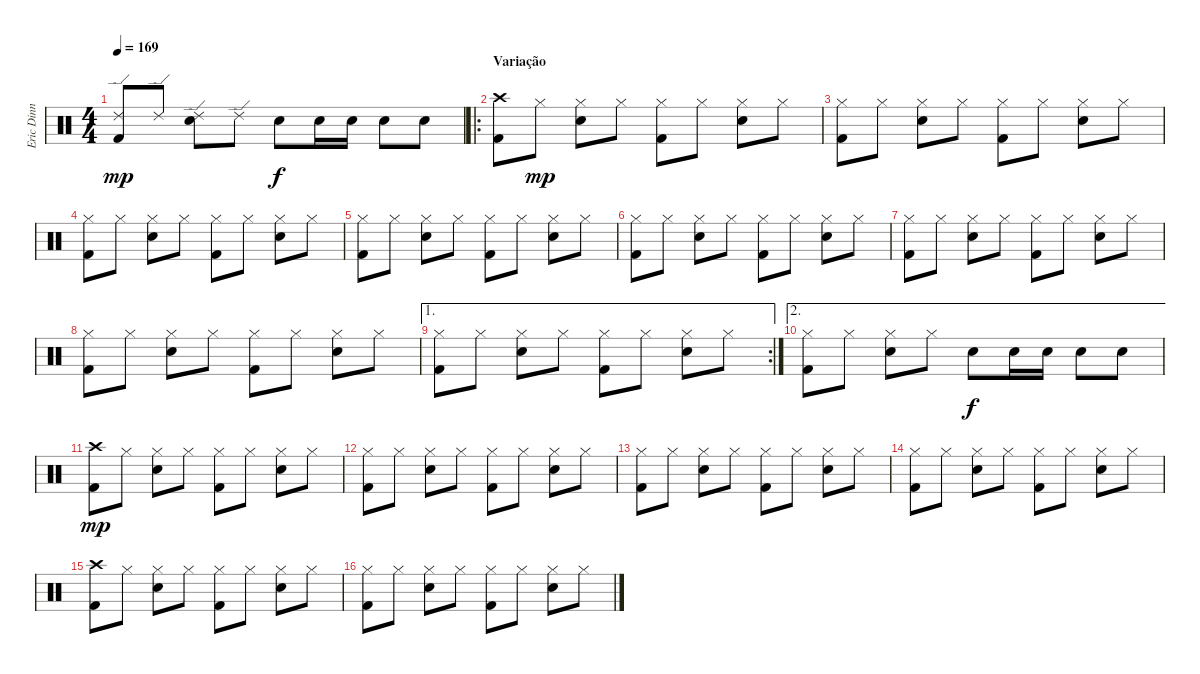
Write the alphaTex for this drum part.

\track ("Eric Dinn" "Eric Dinn") {instrument percussion}
\staff {score}
\articulation defaults
\ts (4 4)
\tempo 169
\clef neutral
\ks c
("Ride (edge) 2" "Kick (hit) 2").8{dy mp} "Ride (edge) 2".8 ("Ride (edge) 2" "Snare (hit) 2").8 "Ride (edge) 2".8 "Snare (hit) 2".8{dy f} "Snare (hit) 2".16 "Snare (hit) 2".16 "Snare (hit) 2".8 "Snare (hit) 2".8 |
\ro
\section ("" "Variação")
("Crash high (hit)" "Kick (hit) 2").8 "Hi-Hat (closed)".8{dy mp} ("Hi-Hat (closed)" "Snare (hit) 2").8 "Hi-Hat (closed)".8 ("Hi-Hat (closed)" "Kick (hit) 2").8 "Hi-Hat (closed)".8 ("Hi-Hat (closed)" "Snare (hit) 2").8 "Hi-Hat (closed)".8 |
("Hi-Hat (closed)" "Kick (hit) 2").8 "Hi-Hat (closed)".8 ("Hi-Hat (closed)" "Snare (hit) 2").8 "Hi-Hat (closed)".8 ("Hi-Hat (closed)" "Kick (hit) 2").8 "Hi-Hat (closed)".8 ("Hi-Hat (closed)" "Snare (hit) 2").8 "Hi-Hat (closed)".8 |
("Hi-Hat (closed)" "Kick (hit) 2").8 "Hi-Hat (closed)".8 ("Hi-Hat (closed)" "Snare (hit) 2").8 "Hi-Hat (closed)".8 ("Hi-Hat (closed)" "Kick (hit) 2").8 "Hi-Hat (closed)".8 ("Hi-Hat (closed)" "Snare (hit) 2").8 "Hi-Hat (closed)".8 |
("Hi-Hat (closed)" "Kick (hit) 2").8 "Hi-Hat (closed)".8 ("Hi-Hat (closed)" "Snare (hit) 2").8 "Hi-Hat (closed)".8 ("Hi-Hat (closed)" "Kick (hit) 2").8 "Hi-Hat (closed)".8 ("Hi-Hat (closed)" "Snare (hit) 2").8 "Hi-Hat (closed)".8 |
("Hi-Hat (closed)" "Kick (hit) 2").8 "Hi-Hat (closed)".8 ("Hi-Hat (closed)" "Snare (hit) 2").8 "Hi-Hat (closed)".8 ("Hi-Hat (closed)" "Kick (hit) 2").8 "Hi-Hat (closed)".8 ("Hi-Hat (closed)" "Snare (hit) 2").8 "Hi-Hat (closed)".8 |
("Hi-Hat (closed)" "Kick (hit) 2").8 "Hi-Hat (closed)".8 ("Hi-Hat (closed)" "Snare (hit) 2").8 "Hi-Hat (closed)".8 ("Hi-Hat (closed)" "Kick (hit) 2").8 "Hi-Hat (closed)".8 ("Hi-Hat (closed)" "Snare (hit) 2").8 "Hi-Hat (closed)".8 |
("Hi-Hat (closed)" "Kick (hit) 2").8 "Hi-Hat (closed)".8 ("Hi-Hat (closed)" "Snare (hit) 2").8 "Hi-Hat (closed)".8 ("Hi-Hat (closed)" "Kick (hit) 2").8 "Hi-Hat (closed)".8 ("Hi-Hat (closed)" "Snare (hit) 2").8 "Hi-Hat (closed)".8 |
\ae 1
\rc 2
("Hi-Hat (closed)" "Kick (hit) 2").8 "Hi-Hat (closed)".8 ("Hi-Hat (closed)" "Snare (hit) 2").8 "Hi-Hat (closed)".8 ("Hi-Hat (closed)" "Kick (hit) 2").8 "Hi-Hat (closed)".8 ("Hi-Hat (closed)" "Snare (hit) 2").8 "Hi-Hat (closed)".8 |
\ae 2
("Hi-Hat (closed)" "Kick (hit) 2").8 "Hi-Hat (closed)".8 ("Hi-Hat (closed)" "Snare (hit) 2").8 "Hi-Hat (closed)".8 "Snare (hit) 2".8{dy f} "Snare (hit) 2".16 "Snare (hit) 2".16 "Snare (hit) 2".8 "Snare (hit) 2".8 |
("Crash high (hit)" "Kick (hit) 2").8{dy mp} "Hi-Hat (closed)".8 ("Hi-Hat (closed)" "Snare (hit) 2").8 "Hi-Hat (closed)".8 ("Hi-Hat (closed)" "Kick (hit) 2").8 "Hi-Hat (closed)".8 ("Hi-Hat (closed)" "Snare (hit) 2").8 "Hi-Hat (closed)".8 |
("Hi-Hat (closed)" "Kick (hit) 2").8 "Hi-Hat (closed)".8 ("Hi-Hat (closed)" "Snare (hit) 2").8 "Hi-Hat (closed)".8 ("Hi-Hat (closed)" "Kick (hit) 2").8 "Hi-Hat (closed)".8 ("Hi-Hat (closed)" "Snare (hit) 2").8 "Hi-Hat (closed)".8 |
("Hi-Hat (closed)" "Kick (hit) 2").8 "Hi-Hat (closed)".8 ("Hi-Hat (closed)" "Snare (hit) 2").8 "Hi-Hat (closed)".8 ("Hi-Hat (closed)" "Kick (hit) 2").8 "Hi-Hat (closed)".8 ("Hi-Hat (closed)" "Snare (hit) 2").8 "Hi-Hat (closed)".8 |
("Hi-Hat (closed)" "Kick (hit) 2").8 "Hi-Hat (closed)".8 ("Hi-Hat (closed)" "Snare (hit) 2").8 "Hi-Hat (closed)".8 ("Hi-Hat (closed)" "Kick (hit) 2").8 "Hi-Hat (closed)".8 ("Hi-Hat (closed)" "Snare (hit) 2").8 "Hi-Hat (closed)".8 |
("Crash high (hit)" "Kick (hit) 2").8 "Hi-Hat (closed)".8 ("Hi-Hat (closed)" "Snare (hit) 2").8 "Hi-Hat (closed)".8 ("Hi-Hat (closed)" "Kick (hit) 2").8 "Hi-Hat (closed)".8 ("Hi-Hat (closed)" "Snare (hit) 2").8 "Hi-Hat (closed)".8 |
("Hi-Hat (closed)" "Kick (hit) 2").8 "Hi-Hat (closed)".8 ("Hi-Hat (closed)" "Snare (hit) 2").8 "Hi-Hat (closed)".8 ("Hi-Hat (closed)" "Kick (hit) 2").8 "Hi-Hat (closed)".8 ("Hi-Hat (closed)" "Snare (hit) 2").8 "Hi-Hat (closed)".8
